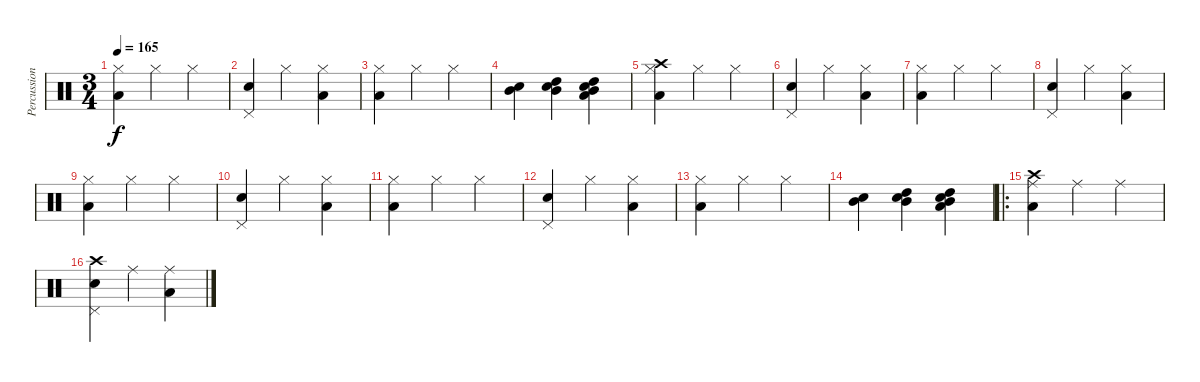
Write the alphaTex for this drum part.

\track ("Percussions" "Percussion") {instrument percussion}
\staff {score}
\articulation defaults
\ts (3 4)
\tempo 165
\clef neutral
\ks c
("Hi-Hat (closed)" "Low Floor Tom (hit)").4{dy f} "Hi-Hat (closed)".4 "Hi-Hat (closed)".4 |
("Snare (hit) 2" "Pedal Hi-Hat (hit)").4 "Hi-Hat (closed)".4 ("Hi-Hat (closed)" "Low Floor Tom (hit)").4 |
("Hi-Hat (closed)" "Low Floor Tom (hit)").4 "Hi-Hat (closed)".4 "Hi-Hat (closed)".4 |
("Mid Tom (hit)" "Snare (hit) 2").4 ("High Tom (hit)" "Mid Tom (hit)" "Snare (hit) 2").4 ("High Tom (hit)" "Mid Tom (hit)" "Snare (hit) 2" "Low Floor Tom (hit)").4 |
("Crash high (hit)" "Hi-Hat (closed)" "Low Floor Tom (hit)").4 "Hi-Hat (closed)".4 "Hi-Hat (closed)".4 |
("Snare (hit) 2" "Pedal Hi-Hat (hit)").4 "Hi-Hat (closed)".4 ("Hi-Hat (closed)" "Low Floor Tom (hit)").4 |
("Hi-Hat (closed)" "Low Floor Tom (hit)").4 "Hi-Hat (closed)".4 "Hi-Hat (closed)".4 |
("Snare (hit) 2" "Pedal Hi-Hat (hit)").4 "Hi-Hat (closed)".4 ("Hi-Hat (closed)" "Low Floor Tom (hit)").4 |
("Hi-Hat (closed)" "Low Floor Tom (hit)").4 "Hi-Hat (closed)".4 "Hi-Hat (closed)".4 |
("Snare (hit) 2" "Pedal Hi-Hat (hit)").4 "Hi-Hat (closed)".4 ("Hi-Hat (closed)" "Low Floor Tom (hit)").4 |
("Hi-Hat (closed)" "Low Floor Tom (hit)").4 "Hi-Hat (closed)".4 "Hi-Hat (closed)".4 |
("Snare (hit) 2" "Pedal Hi-Hat (hit)").4 "Hi-Hat (closed)".4 ("Hi-Hat (closed)" "Low Floor Tom (hit)").4 |
("Hi-Hat (closed)" "Low Floor Tom (hit)").4 "Hi-Hat (closed)".4 "Hi-Hat (closed)".4 |
("Mid Tom (hit)" "Snare (hit) 2").4 ("High Tom (hit)" "Mid Tom (hit)" "Snare (hit) 2").4 ("High Tom (hit)" "Mid Tom (hit)" "Snare (hit) 2" "Low Floor Tom (hit)").4 |
\ro
("Crash high (hit)" "Ride (middle)" "Low Floor Tom (hit)").4 "Ride (middle)".4 "Ride (middle)".4 |
("Crash high (hit)" "Snare (hit) 2" "Pedal Hi-Hat (hit)").4 "Ride (middle)".4 ("Ride (middle)" "Low Floor Tom (hit)").4
